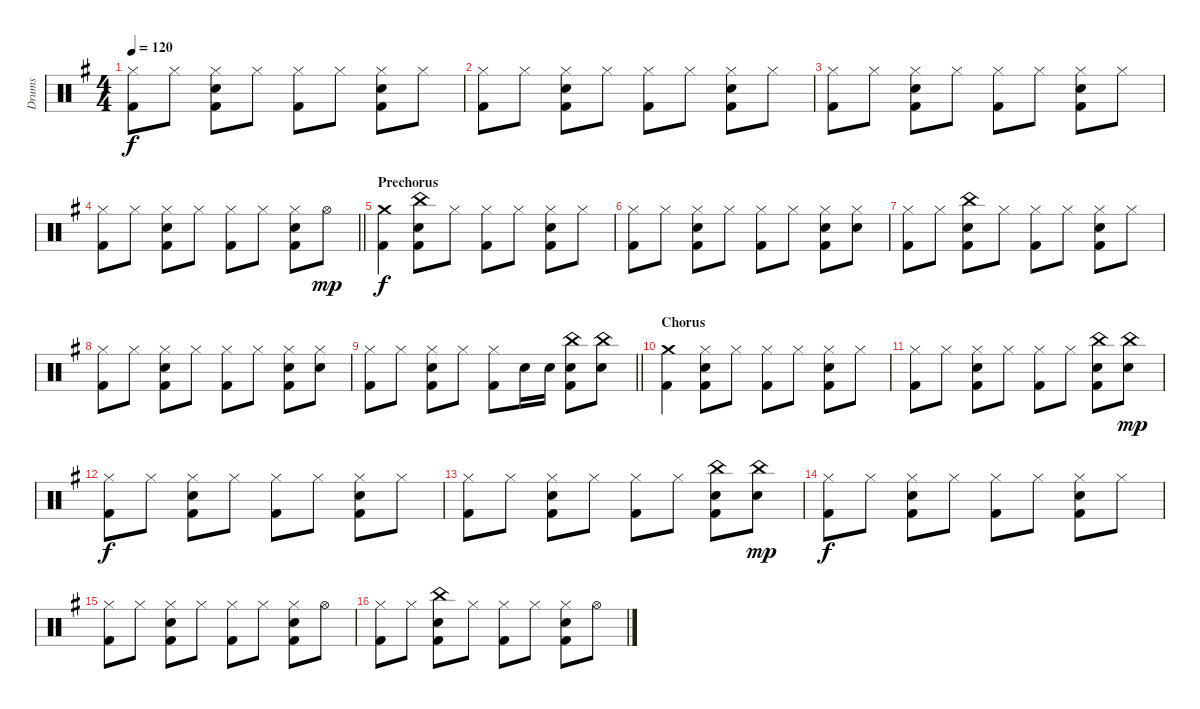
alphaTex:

\track ("Drums" "Drums") {instrument percussion}
\staff {score}
\articulation defaults
\ts (4 4)
\tempo 120
\clef neutral
\ks g
("Hi-Hat (closed)" "Kick (hit) 2").8{dy f} "Hi-Hat (closed)".8 ("Hi-Hat (closed)" "Electric Snare (hit)" "Kick (hit) 2").8 "Hi-Hat (closed)".8 ("Hi-Hat (closed)" "Kick (hit) 2").8 "Hi-Hat (closed)".8 ("Hi-Hat (closed)" "Electric Snare (hit)" "Kick (hit) 2").8 "Hi-Hat (closed)".8 |
("Hi-Hat (closed)" "Kick (hit) 2").8 "Hi-Hat (closed)".8 ("Hi-Hat (closed)" "Electric Snare (hit)" "Kick (hit) 2").8 "Hi-Hat (closed)".8 ("Hi-Hat (closed)" "Kick (hit) 2").8 "Hi-Hat (closed)".8 ("Hi-Hat (closed)" "Electric Snare (hit)" "Kick (hit) 2").8 "Hi-Hat (closed)".8 |
("Hi-Hat (closed)" "Kick (hit) 2").8 "Hi-Hat (closed)".8 ("Hi-Hat (closed)" "Electric Snare (hit)" "Kick (hit) 2").8 "Hi-Hat (closed)".8 ("Hi-Hat (closed)" "Kick (hit) 2").8 "Hi-Hat (closed)".8 ("Hi-Hat (closed)" "Electric Snare (hit)" "Kick (hit) 2").8 "Hi-Hat (closed)".8 |
\barLineRight lightlight
("Hi-Hat (closed)" "Kick (hit) 2").8 "Hi-Hat (closed)".8 ("Hi-Hat (closed)" "Electric Snare (hit)" "Kick (hit) 2").8 "Hi-Hat (closed)".8 ("Hi-Hat (closed)" "Kick (hit) 2").8 "Hi-Hat (closed)".8 ("Hi-Hat (closed)" "Electric Snare (hit)" "Kick (hit) 2").8 "Hi-Hat (open)".8{dy mp} |
\section ("" "Prechorus")
("Crash medium (hit)" "Kick (hit) 2").4{dy f} ("China (hit)" "Electric Snare (hit)" "Kick (hit) 2").8 "Hi-Hat (closed)".8 ("Hi-Hat (closed)" "Kick (hit) 2").8 "Hi-Hat (closed)".8 ("Hi-Hat (closed)" "Electric Snare (hit)" "Kick (hit) 2").8 "Hi-Hat (closed)".8 |
("Hi-Hat (closed)" "Kick (hit) 2").8 "Hi-Hat (closed)".8 ("Hi-Hat (closed)" "Electric Snare (hit)" "Kick (hit) 2").8 "Hi-Hat (closed)".8 ("Hi-Hat (closed)" "Kick (hit) 2").8 "Hi-Hat (closed)".8 ("Hi-Hat (closed)" "Electric Snare (hit)" "Kick (hit) 2").8 ("Hi-Hat (closed)" "Electric Snare (hit)").8 |
("Hi-Hat (closed)" "Kick (hit) 2").8 "Hi-Hat (closed)".8 ("China (hit)" "Electric Snare (hit)" "Kick (hit) 2").8 "Hi-Hat (closed)".8 ("Hi-Hat (closed)" "Kick (hit) 2").8 "Hi-Hat (closed)".8 ("Hi-Hat (closed)" "Electric Snare (hit)" "Kick (hit) 2").8 "Hi-Hat (closed)".8 |
("Hi-Hat (closed)" "Kick (hit) 2").8 "Hi-Hat (closed)".8 ("Hi-Hat (closed)" "Electric Snare (hit)" "Kick (hit) 2").8 "Hi-Hat (closed)".8 ("Hi-Hat (closed)" "Kick (hit) 2").8 "Hi-Hat (closed)".8 ("Hi-Hat (closed)" "Electric Snare (hit)" "Kick (hit) 2").8 ("Hi-Hat (closed)" "Electric Snare (hit)").8 |
\barLineRight lightlight
("Hi-Hat (closed)" "Kick (hit) 2").8 "Hi-Hat (closed)".8 ("Hi-Hat (closed)" "Electric Snare (hit)" "Kick (hit) 2").8 "Hi-Hat (closed)".8 ("Hi-Hat (closed)" "Kick (hit) 2").8 "Electric Snare (hit)".16 "Electric Snare (hit)".16 ("China (hit)" "Electric Snare (hit)" "Kick (hit) 2").8 ("China (hit)" "Electric Snare (hit)").8 |
\section ("" "Chorus")
("Crash medium (hit)" "Kick (hit) 2").4 ("Hi-Hat (closed)" "Electric Snare (hit)" "Kick (hit) 2").8 "Hi-Hat (closed)".8 ("Hi-Hat (closed)" "Kick (hit) 2").8 "Hi-Hat (closed)".8 ("Hi-Hat (closed)" "Electric Snare (hit)" "Kick (hit) 2").8 "Hi-Hat (closed)".8 |
("Hi-Hat (closed)" "Kick (hit) 2").8 "Hi-Hat (closed)".8 ("Hi-Hat (closed)" "Electric Snare (hit)" "Kick (hit) 2").8 "Hi-Hat (closed)".8 ("Hi-Hat (closed)" "Kick (hit) 2").8 "Hi-Hat (closed)".8 ("China (hit)" "Electric Snare (hit)" "Kick (hit) 2").8 ("China (hit)" "Electric Snare (hit)").8{dy mp} |
("Hi-Hat (closed)" "Kick (hit) 2").8{dy f} "Hi-Hat (closed)".8 ("Hi-Hat (closed)" "Electric Snare (hit)" "Kick (hit) 2").8 "Hi-Hat (closed)".8 ("Hi-Hat (closed)" "Kick (hit) 2").8 "Hi-Hat (closed)".8 ("Hi-Hat (closed)" "Electric Snare (hit)" "Kick (hit) 2").8 "Hi-Hat (closed)".8 |
("Hi-Hat (closed)" "Kick (hit) 2").8 "Hi-Hat (closed)".8 ("Hi-Hat (closed)" "Electric Snare (hit)" "Kick (hit) 2").8 "Hi-Hat (closed)".8 ("Hi-Hat (closed)" "Kick (hit) 2").8 "Hi-Hat (closed)".8 ("China (hit)" "Electric Snare (hit)" "Kick (hit) 2").8 ("China (hit)" "Electric Snare (hit)").8{dy mp} |
("Hi-Hat (closed)" "Kick (hit) 2").8{dy f} "Hi-Hat (closed)".8 ("Hi-Hat (closed)" "Electric Snare (hit)" "Kick (hit) 2").8 "Hi-Hat (closed)".8 ("Hi-Hat (closed)" "Kick (hit) 2").8 "Hi-Hat (closed)".8 ("Hi-Hat (closed)" "Electric Snare (hit)" "Kick (hit) 2").8 "Hi-Hat (closed)".8 |
("Hi-Hat (closed)" "Kick (hit) 2").8 "Hi-Hat (closed)".8 ("Hi-Hat (closed)" "Electric Snare (hit)" "Kick (hit) 2").8 "Hi-Hat (closed)".8 ("Hi-Hat (closed)" "Kick (hit) 2").8 "Hi-Hat (closed)".8 ("Hi-Hat (closed)" "Electric Snare (hit)" "Kick (hit) 2").8 "Hi-Hat (open)".8 |
("Hi-Hat (closed)" "Kick (hit) 2").8 "Hi-Hat (closed)".8 ("China (hit)" "Electric Snare (hit)" "Kick (hit) 2").8 "Hi-Hat (closed)".8 ("Hi-Hat (closed)" "Kick (hit) 2").8 "Hi-Hat (closed)".8 ("Hi-Hat (closed)" "Electric Snare (hit)" "Kick (hit) 2").8 "Hi-Hat (open)".8
